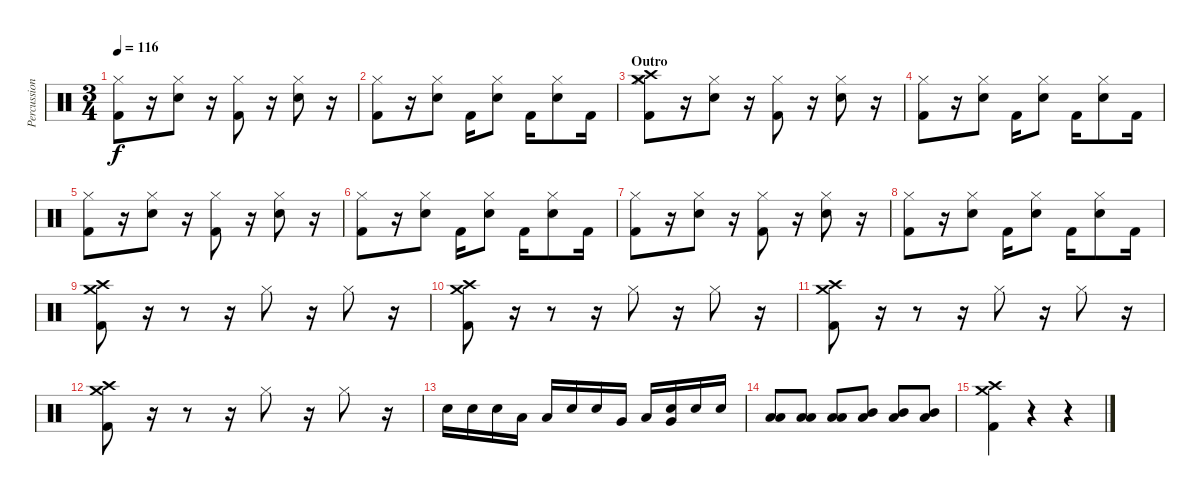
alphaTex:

\track ("Percussion" "Percussion") {instrument percussion}
\staff {score}
\articulation defaults
\ts (3 4)
\tempo 116
\clef neutral
\ks c
("Hi-Hat (closed)" "Kick (hit) 2").8{dy f} r.16 ("Hi-Hat (closed)" "Snare (hit) 2").8 r.16 ("Hi-Hat (closed)" "Kick (hit) 2").8 r.16 ("Hi-Hat (closed)" "Snare (hit) 2").8 r.16 |
("Hi-Hat (closed)" "Kick (hit) 2").8 r.16 ("Hi-Hat (closed)" "Snare (hit) 2").8 "Kick (hit) 2".16 ("Hi-Hat (closed)" "Snare (hit) 2").8 "Kick (hit) 2".16 ("Hi-Hat (closed)" "Snare (hit) 2").8 "Kick (hit) 2".16 |
\section ("" "Outro")
("Hi-Hat (closed)" "Crash high (hit)" "Crash medium (hit)" "Kick (hit) 2").8 r.16 ("Hi-Hat (closed)" "Snare (hit) 2").8 r.16 ("Hi-Hat (closed)" "Kick (hit) 2").8 r.16 ("Hi-Hat (closed)" "Snare (hit) 2").8 r.16 |
("Hi-Hat (closed)" "Kick (hit) 2").8 r.16 ("Hi-Hat (closed)" "Snare (hit) 2").8 "Kick (hit) 2".16 ("Hi-Hat (closed)" "Snare (hit) 2").8 "Kick (hit) 2".16 ("Hi-Hat (closed)" "Snare (hit) 2").8 "Kick (hit) 2".16 |
("Hi-Hat (closed)" "Kick (hit) 2").8 r.16 ("Hi-Hat (closed)" "Snare (hit) 2").8 r.16 ("Hi-Hat (closed)" "Kick (hit) 2").8 r.16 ("Hi-Hat (closed)" "Snare (hit) 2").8 r.16 |
("Hi-Hat (closed)" "Kick (hit) 2").8 r.16 ("Hi-Hat (closed)" "Snare (hit) 2").8 "Kick (hit) 2".16 ("Hi-Hat (closed)" "Snare (hit) 2").8 "Kick (hit) 2".16 ("Hi-Hat (closed)" "Snare (hit) 2").8 "Kick (hit) 2".16 |
("Hi-Hat (closed)" "Kick (hit) 2").8 r.16 ("Hi-Hat (closed)" "Snare (hit) 2").8 r.16 ("Hi-Hat (closed)" "Kick (hit) 2").8 r.16 ("Hi-Hat (closed)" "Snare (hit) 2").8 r.16 |
("Hi-Hat (closed)" "Kick (hit) 2").8 r.16 ("Hi-Hat (closed)" "Snare (hit) 2").8 "Kick (hit) 2".16 ("Hi-Hat (closed)" "Snare (hit) 2").8 "Kick (hit) 2".16 ("Hi-Hat (closed)" "Snare (hit) 2").8 "Kick (hit) 2".16 |
("Crash medium (hit)" "Crash high (hit)" "Kick (hit) 2").8 r.16 r.8 r.16 "Hi-Hat (closed)".8 r.16 "Hi-Hat (closed)".8 r.16 |
("Crash medium (hit)" "Crash high (hit)" "Kick (hit) 2").8 r.16 r.8 r.16 "Hi-Hat (closed)".8 r.16 "Hi-Hat (closed)".8 r.16 |
("Crash medium (hit)" "Crash high (hit)" "Kick (hit) 2").8 r.16 r.8 r.16 "Hi-Hat (closed)".8 r.16 "Hi-Hat (closed)".8 r.16 |
("Crash medium (hit)" "Crash high (hit)" "Kick (hit) 2").8 r.16 r.8 r.16 "Hi-Hat (closed)".8 r.16 "Hi-Hat (closed)".8 r.16 |
"Snare (hit) 2".16 "Snare (hit) 2".16 "Snare (hit) 2".16 "Low Tom (hit)".16 "Low Tom (hit)".16 "Snare (hit) 2".16 "Snare (hit) 2".16 "Very Low Tom (hit)".16 "Low Tom (hit)".16 ("Snare (hit) 2" "Very Low Tom (hit)").16 "Snare (hit) 2".16 "Snare (hit) 2".16 |
("Low Tom (hit)" "Low Floor Tom (hit)").8 ("Low Tom (hit)" "Low Floor Tom (hit)").8 ("Low Tom (hit)" "Low Floor Tom (hit)").8 ("Mid Tom (hit)" "Low Tom (hit)").8 ("Mid Tom (hit)" "Low Tom (hit)").8 ("Mid Tom (hit)" "Low Tom (hit)").8 |
("Crash medium (hit)" "Crash high (hit)" "Kick (hit) 2").4 r.4 r.4
